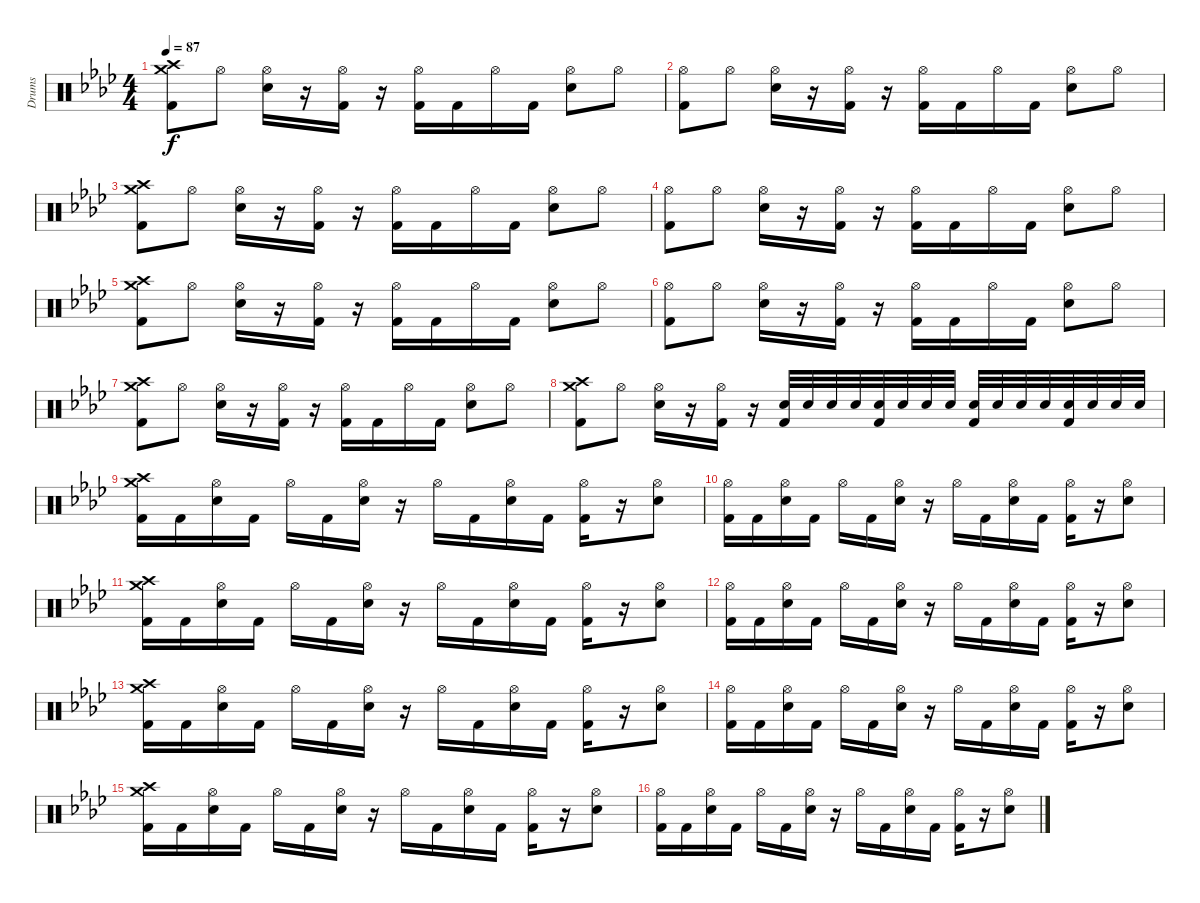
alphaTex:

\track ("Drums" "Drums") {instrument percussion}
\staff {score}
\articulation defaults
\ts (4 4)
\tempo 87
\clef neutral
\ks fminor
("Crash medium (hit)" "Crash high (hit)" "Kick (hit) 2").8{dy f} "Hi-Hat (open)".8 ("Hi-Hat (open)" "Electric Snare (hit)").16 r.16 ("Hi-Hat (open)" "Kick (hit) 2").16 r.16 ("Hi-Hat (open)" "Kick (hit) 2").16 "Kick (hit) 2".16 "Hi-Hat (open)".16 "Kick (hit) 2".16 ("Hi-Hat (open)" "Electric Snare (hit)").8 "Hi-Hat (open)".8 |
("Hi-Hat (open)" "Kick (hit) 2").8 "Hi-Hat (open)".8 ("Hi-Hat (open)" "Electric Snare (hit)").16 r.16 ("Hi-Hat (open)" "Kick (hit) 2").16 r.16 ("Hi-Hat (open)" "Kick (hit) 2").16 "Kick (hit) 2".16 "Hi-Hat (open)".16 "Kick (hit) 2".16 ("Hi-Hat (open)" "Electric Snare (hit)").8 "Hi-Hat (open)".8 |
("Crash medium (hit)" "Crash high (hit)" "Kick (hit) 2").8 "Hi-Hat (open)".8 ("Hi-Hat (open)" "Electric Snare (hit)").16 r.16 ("Hi-Hat (open)" "Kick (hit) 2").16 r.16 ("Hi-Hat (open)" "Kick (hit) 2").16 "Kick (hit) 2".16 "Hi-Hat (open)".16 "Kick (hit) 2".16 ("Hi-Hat (open)" "Electric Snare (hit)").8 "Hi-Hat (open)".8 |
("Hi-Hat (open)" "Kick (hit) 2").8 "Hi-Hat (open)".8 ("Hi-Hat (open)" "Electric Snare (hit)").16 r.16 ("Hi-Hat (open)" "Kick (hit) 2").16 r.16 ("Hi-Hat (open)" "Kick (hit) 2").16 "Kick (hit) 2".16 "Hi-Hat (open)".16 "Kick (hit) 2".16 ("Hi-Hat (open)" "Electric Snare (hit)").8 "Hi-Hat (open)".8 |
("Crash medium (hit)" "Crash high (hit)" "Kick (hit) 2").8 "Hi-Hat (open)".8 ("Hi-Hat (open)" "Electric Snare (hit)").16 r.16 ("Hi-Hat (open)" "Kick (hit) 2").16 r.16 ("Hi-Hat (open)" "Kick (hit) 2").16 "Kick (hit) 2".16 "Hi-Hat (open)".16 "Kick (hit) 2".16 ("Hi-Hat (open)" "Electric Snare (hit)").8 "Hi-Hat (open)".8 |
("Hi-Hat (open)" "Kick (hit) 2").8 "Hi-Hat (open)".8 ("Hi-Hat (open)" "Electric Snare (hit)").16 r.16 ("Hi-Hat (open)" "Kick (hit) 2").16 r.16 ("Hi-Hat (open)" "Kick (hit) 2").16 "Kick (hit) 2".16 "Hi-Hat (open)".16 "Kick (hit) 2".16 ("Hi-Hat (open)" "Electric Snare (hit)").8 "Hi-Hat (open)".8 |
("Crash medium (hit)" "Crash high (hit)" "Kick (hit) 2").8 "Hi-Hat (open)".8 ("Hi-Hat (open)" "Electric Snare (hit)").16 r.16 ("Hi-Hat (open)" "Kick (hit) 2").16 r.16 ("Hi-Hat (open)" "Kick (hit) 2").16 "Kick (hit) 2".16 "Hi-Hat (open)".16 "Kick (hit) 2".16 ("Hi-Hat (open)" "Electric Snare (hit)").8 "Hi-Hat (open)".8 |
("Crash medium (hit)" "Crash high (hit)" "Kick (hit) 2").8 "Hi-Hat (open)".8 ("Hi-Hat (open)" "Electric Snare (hit)").16 r.16 ("Hi-Hat (open)" "Kick (hit) 2").16 r.16 ("Electric Snare (hit)" "Kick (hit) 2").32 "Electric Snare (hit)".32 "Electric Snare (hit)".32 "Electric Snare (hit)".32 ("Electric Snare (hit)" "Kick (hit) 2").32 "Electric Snare (hit)".32 "Electric Snare (hit)".32 "Electric Snare (hit)".32 ("Electric Snare (hit)" "Kick (hit) 2").32 "Electric Snare (hit)".32 "Electric Snare (hit)".32 "Electric Snare (hit)".32 ("Electric Snare (hit)" "Kick (hit) 2").32 "Electric Snare (hit)".32 "Electric Snare (hit)".32 "Electric Snare (hit)".32 |
("Crash medium (hit)" "Crash high (hit)" "Kick (hit) 2").16 "Kick (hit) 2".16 ("Hi-Hat (open)" "Electric Snare (hit)").16 "Kick (hit) 2".16 "Hi-Hat (open)".16 "Kick (hit) 2".16 ("Hi-Hat (open)" "Electric Snare (hit)").16 r.16 "Hi-Hat (open)".16 "Kick (hit) 2".16 ("Hi-Hat (open)" "Electric Snare (hit)").16 "Kick (hit) 2".16 ("Hi-Hat (open)" "Kick (hit) 2").16 r.16 ("Hi-Hat (open)" "Electric Snare (hit)").8 |
("Hi-Hat (open)" "Kick (hit) 2").16 "Kick (hit) 2".16 ("Hi-Hat (open)" "Electric Snare (hit)").16 "Kick (hit) 2".16 "Hi-Hat (open)".16 "Kick (hit) 2".16 ("Hi-Hat (open)" "Electric Snare (hit)").16 r.16 "Hi-Hat (open)".16 "Kick (hit) 2".16 ("Hi-Hat (open)" "Electric Snare (hit)").16 "Kick (hit) 2".16 ("Hi-Hat (open)" "Kick (hit) 2").16 r.16 ("Hi-Hat (open)" "Electric Snare (hit)").8 |
("Crash medium (hit)" "Crash high (hit)" "Kick (hit) 2").16 "Kick (hit) 2".16 ("Hi-Hat (open)" "Electric Snare (hit)").16 "Kick (hit) 2".16 "Hi-Hat (open)".16 "Kick (hit) 2".16 ("Hi-Hat (open)" "Electric Snare (hit)").16 r.16 "Hi-Hat (open)".16 "Kick (hit) 2".16 ("Hi-Hat (open)" "Electric Snare (hit)").16 "Kick (hit) 2".16 ("Hi-Hat (open)" "Kick (hit) 2").16 r.16 ("Hi-Hat (open)" "Electric Snare (hit)").8 |
("Hi-Hat (open)" "Kick (hit) 2").16 "Kick (hit) 2".16 ("Hi-Hat (open)" "Electric Snare (hit)").16 "Kick (hit) 2".16 "Hi-Hat (open)".16 "Kick (hit) 2".16 ("Hi-Hat (open)" "Electric Snare (hit)").16 r.16 "Hi-Hat (open)".16 "Kick (hit) 2".16 ("Hi-Hat (open)" "Electric Snare (hit)").16 "Kick (hit) 2".16 ("Hi-Hat (open)" "Kick (hit) 2").16 r.16 ("Hi-Hat (open)" "Electric Snare (hit)").8 |
("Crash medium (hit)" "Crash high (hit)" "Kick (hit) 2").16 "Kick (hit) 2".16 ("Hi-Hat (open)" "Electric Snare (hit)").16 "Kick (hit) 2".16 "Hi-Hat (open)".16 "Kick (hit) 2".16 ("Hi-Hat (open)" "Electric Snare (hit)").16 r.16 "Hi-Hat (open)".16 "Kick (hit) 2".16 ("Hi-Hat (open)" "Electric Snare (hit)").16 "Kick (hit) 2".16 ("Hi-Hat (open)" "Kick (hit) 2").16 r.16 ("Hi-Hat (open)" "Electric Snare (hit)").8 |
("Hi-Hat (open)" "Kick (hit) 2").16 "Kick (hit) 2".16 ("Hi-Hat (open)" "Electric Snare (hit)").16 "Kick (hit) 2".16 "Hi-Hat (open)".16 "Kick (hit) 2".16 ("Hi-Hat (open)" "Electric Snare (hit)").16 r.16 "Hi-Hat (open)".16 "Kick (hit) 2".16 ("Hi-Hat (open)" "Electric Snare (hit)").16 "Kick (hit) 2".16 ("Hi-Hat (open)" "Kick (hit) 2").16 r.16 ("Hi-Hat (open)" "Electric Snare (hit)").8 |
("Crash medium (hit)" "Crash high (hit)" "Kick (hit) 2").16 "Kick (hit) 2".16 ("Hi-Hat (open)" "Electric Snare (hit)").16 "Kick (hit) 2".16 "Hi-Hat (open)".16 "Kick (hit) 2".16 ("Hi-Hat (open)" "Electric Snare (hit)").16 r.16 "Hi-Hat (open)".16 "Kick (hit) 2".16 ("Hi-Hat (open)" "Electric Snare (hit)").16 "Kick (hit) 2".16 ("Hi-Hat (open)" "Kick (hit) 2").16 r.16 ("Hi-Hat (open)" "Electric Snare (hit)").8 |
("Hi-Hat (open)" "Kick (hit) 2").16 "Kick (hit) 2".16 ("Hi-Hat (open)" "Electric Snare (hit)").16 "Kick (hit) 2".16 "Hi-Hat (open)".16 "Kick (hit) 2".16 ("Hi-Hat (open)" "Electric Snare (hit)").16 r.16 "Hi-Hat (open)".16 "Kick (hit) 2".16 ("Hi-Hat (open)" "Electric Snare (hit)").16 "Kick (hit) 2".16 ("Hi-Hat (open)" "Kick (hit) 2").16 r.16 ("Hi-Hat (open)" "Electric Snare (hit)").8
